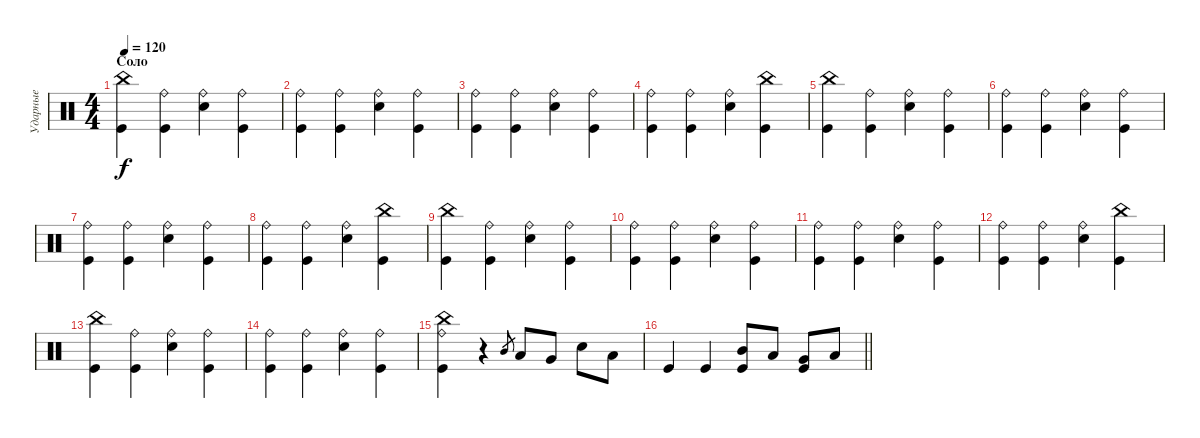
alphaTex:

\track ("Ударные" "Ударные") {instrument percussion}
\staff {score}
\articulation defaults
\ts (4 4)
\section ("" "Соло")
\tempo 120
\clef neutral
\ks c
("China (hit)" "Kick (hit)").4{dy f} ("Ride (bell)" "Kick (hit)").4 ("Ride (bell)" "Electric Snare (hit)").4 ("Ride (bell)" "Kick (hit)").4 |
("Ride (bell)" "Kick (hit)").4 ("Ride (bell)" "Kick (hit)").4 ("Ride (bell)" "Electric Snare (hit)").4 ("Ride (bell)" "Kick (hit)").4 |
("Ride (bell)" "Kick (hit)").4 ("Ride (bell)" "Kick (hit)").4 ("Ride (bell)" "Electric Snare (hit)").4 ("Ride (bell)" "Kick (hit)").4 |
("Ride (bell)" "Kick (hit)").4 ("Ride (bell)" "Kick (hit)").4 ("Ride (bell)" "Electric Snare (hit)").4 ("China (hit)" "Kick (hit)").4 |
("China (hit)" "Kick (hit)").4 ("Ride (bell)" "Kick (hit)").4 ("Ride (bell)" "Electric Snare (hit)").4 ("Ride (bell)" "Kick (hit)").4 |
("Ride (bell)" "Kick (hit)").4 ("Ride (bell)" "Kick (hit)").4 ("Ride (bell)" "Electric Snare (hit)").4 ("Ride (bell)" "Kick (hit)").4 |
("Ride (bell)" "Kick (hit)").4 ("Ride (bell)" "Kick (hit)").4 ("Ride (bell)" "Electric Snare (hit)").4 ("Ride (bell)" "Kick (hit)").4 |
("Ride (bell)" "Kick (hit)").4 ("Ride (bell)" "Kick (hit)").4 ("Ride (bell)" "Electric Snare (hit)").4 ("China (hit)" "Kick (hit)").4 |
("China (hit)" "Kick (hit)").4 ("Ride (bell)" "Kick (hit)").4 ("Ride (bell)" "Electric Snare (hit)").4 ("Ride (bell)" "Kick (hit)").4 |
("Ride (bell)" "Kick (hit)").4 ("Ride (bell)" "Kick (hit)").4 ("Ride (bell)" "Electric Snare (hit)").4 ("Ride (bell)" "Kick (hit)").4 |
("Ride (bell)" "Kick (hit)").4 ("Ride (bell)" "Kick (hit)").4 ("Ride (bell)" "Electric Snare (hit)").4 ("Ride (bell)" "Kick (hit)").4 |
("Ride (bell)" "Kick (hit)").4 ("Ride (bell)" "Kick (hit)").4 ("Ride (bell)" "Electric Snare (hit)").4 ("China (hit)" "Kick (hit)").4 |
("China (hit)" "Kick (hit)").4 ("Ride (bell)" "Kick (hit)").4 ("Ride (bell)" "Electric Snare (hit)").4 ("Ride (bell)" "Kick (hit)").4 |
("Ride (bell)" "Kick (hit)").4 ("Ride (bell)" "Kick (hit)").4 ("Ride (bell)" "Electric Snare (hit)").4 ("Ride (bell)" "Kick (hit)").4 |
("China (hit)" "Ride (bell)" "Kick (hit)").4 r.4 "Mid Tom (hit)".8{gr} "Low Tom (hit)".8 "Very Low Tom (hit)".8 "Electric Snare (hit)".8 "Low Floor Tom (hit)".8 |
\barLineRight lightlight "Kick (hit)".4 "Kick (hit)".4
("Mid Tom (hit)" "Kick (hit)").8 "Low Tom (hit)".8 ("Very Low Tom (hit)" "Kick (hit)").8 "Low Floor Tom (hit)".8
